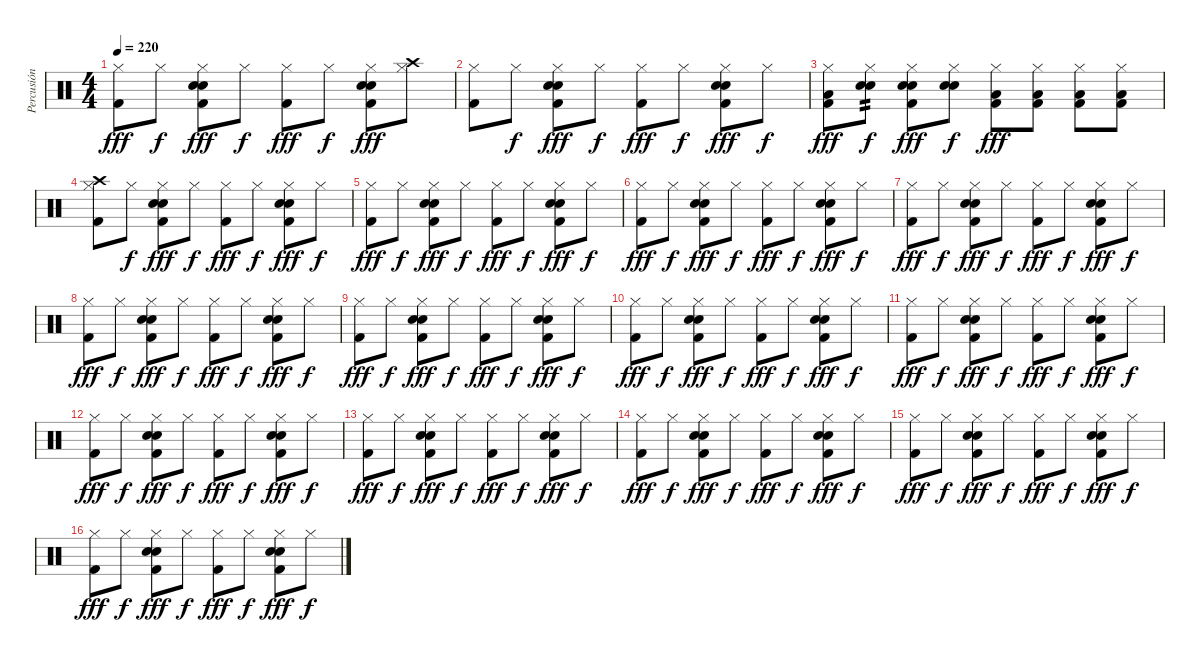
\track ("Percusión" "Percusión") {instrument percussion}
\staff {score}
\articulation defaults
\ts (4 4)
\tempo 220
\clef neutral
\ks c
("Hi-Hat (closed)" "Kick (hit) 2").8{dy fff} "Hi-Hat (closed)".8{dy f} ("Hi-Hat (closed)" "Electric Snare (hit)" "Snare (hit) 2" "Kick (hit) 2").8{dy fff} "Hi-Hat (closed)".8{dy f} ("Hi-Hat (closed)" "Kick (hit) 2").8{dy fff} "Hi-Hat (closed)".8{dy f} ("Hi-Hat (closed)" "Electric Snare (hit)" "Snare (hit) 2" "Kick (hit) 2").8{dy fff} ("Crash high (hit)" "Hi-Hat (closed)").8 |
("Hi-Hat (closed)" "Kick (hit) 2").8 "Hi-Hat (closed)".8{dy f} ("Hi-Hat (closed)" "Electric Snare (hit)" "Snare (hit) 2" "Kick (hit) 2").8{dy fff} "Hi-Hat (closed)".8{dy f} ("Hi-Hat (closed)" "Kick (hit) 2").8{dy fff} "Hi-Hat (closed)".8{dy f} ("Hi-Hat (closed)" "Electric Snare (hit)" "Snare (hit) 2" "Kick (hit) 2").8{dy fff} "Hi-Hat (closed)".8{dy f} |
("Hi-Hat (closed)" "Low Tom (hit)" "Kick (hit) 2").8{dy fff} ("Hi-Hat (closed)" "Snare (hit) 2" "Electric Snare (hit)").8{tp 2 dy f} ("Hi-Hat (closed)" "Snare (hit) 2" "Electric Snare (hit)" "Kick (hit) 2").8{dy fff} ("Hi-Hat (closed)" "Snare (hit) 2" "Electric Snare (hit)").8{dy f} ("Hi-Hat (closed)" "Low Tom (hit)" "Kick (hit) 2").8{dy fff} ("Hi-Hat (closed)" "Low Tom (hit)" "Kick (hit) 2").8 ("Hi-Hat (closed)" "Low Tom (hit)" "Kick (hit) 2").8 ("Hi-Hat (closed)" "Low Tom (hit)" "Kick (hit) 2").8 |
("Crash high (hit)" "Hi-Hat (closed)" "Kick (hit) 2").8 "Hi-Hat (closed)".8{dy f} ("Hi-Hat (closed)" "Electric Snare (hit)" "Snare (hit) 2" "Kick (hit) 2").8{dy fff} "Hi-Hat (closed)".8{dy f} ("Hi-Hat (closed)" "Kick (hit) 2").8{dy fff} "Hi-Hat (closed)".8{dy f} ("Hi-Hat (closed)" "Electric Snare (hit)" "Snare (hit) 2" "Kick (hit) 2").8{dy fff} "Hi-Hat (closed)".8{dy f} |
("Hi-Hat (closed)" "Kick (hit) 2").8{dy fff} "Hi-Hat (closed)".8{dy f} ("Hi-Hat (closed)" "Electric Snare (hit)" "Snare (hit) 2" "Kick (hit) 2").8{dy fff} "Hi-Hat (closed)".8{dy f} ("Hi-Hat (closed)" "Kick (hit) 2").8{dy fff} "Hi-Hat (closed)".8{dy f} ("Hi-Hat (closed)" "Electric Snare (hit)" "Snare (hit) 2" "Kick (hit) 2").8{dy fff} "Hi-Hat (closed)".8{dy f} |
("Hi-Hat (closed)" "Kick (hit) 2").8{dy fff} "Hi-Hat (closed)".8{dy f} ("Hi-Hat (closed)" "Electric Snare (hit)" "Snare (hit) 2" "Kick (hit) 2").8{dy fff} "Hi-Hat (closed)".8{dy f} ("Hi-Hat (closed)" "Kick (hit) 2").8{dy fff} "Hi-Hat (closed)".8{dy f} ("Hi-Hat (closed)" "Electric Snare (hit)" "Snare (hit) 2" "Kick (hit) 2").8{dy fff} "Hi-Hat (closed)".8{dy f} |
("Hi-Hat (closed)" "Kick (hit) 2").8{dy fff} "Hi-Hat (closed)".8{dy f} ("Hi-Hat (closed)" "Electric Snare (hit)" "Snare (hit) 2" "Kick (hit) 2").8{dy fff} "Hi-Hat (closed)".8{dy f} ("Hi-Hat (closed)" "Kick (hit) 2").8{dy fff} "Hi-Hat (closed)".8{dy f} ("Hi-Hat (closed)" "Electric Snare (hit)" "Snare (hit) 2" "Kick (hit) 2").8{dy fff} "Hi-Hat (closed)".8{dy f} |
("Hi-Hat (closed)" "Kick (hit) 2").8{dy fff} "Hi-Hat (closed)".8{dy f} ("Hi-Hat (closed)" "Electric Snare (hit)" "Snare (hit) 2" "Kick (hit) 2").8{dy fff} "Hi-Hat (closed)".8{dy f} ("Hi-Hat (closed)" "Kick (hit) 2").8{dy fff} "Hi-Hat (closed)".8{dy f} ("Hi-Hat (closed)" "Electric Snare (hit)" "Snare (hit) 2" "Kick (hit) 2").8{dy fff} "Hi-Hat (closed)".8{dy f} |
("Hi-Hat (closed)" "Kick (hit) 2").8{dy fff} "Hi-Hat (closed)".8{dy f} ("Hi-Hat (closed)" "Electric Snare (hit)" "Snare (hit) 2" "Kick (hit) 2").8{dy fff} "Hi-Hat (closed)".8{dy f} ("Hi-Hat (closed)" "Kick (hit) 2").8{dy fff} "Hi-Hat (closed)".8{dy f} ("Hi-Hat (closed)" "Electric Snare (hit)" "Snare (hit) 2" "Kick (hit) 2").8{dy fff} "Hi-Hat (closed)".8{dy f} |
("Hi-Hat (closed)" "Kick (hit) 2").8{dy fff} "Hi-Hat (closed)".8{dy f} ("Hi-Hat (closed)" "Electric Snare (hit)" "Snare (hit) 2" "Kick (hit) 2").8{dy fff} "Hi-Hat (closed)".8{dy f} ("Hi-Hat (closed)" "Kick (hit) 2").8{dy fff} "Hi-Hat (closed)".8{dy f} ("Hi-Hat (closed)" "Electric Snare (hit)" "Snare (hit) 2" "Kick (hit) 2").8{dy fff} "Hi-Hat (closed)".8{dy f} |
("Hi-Hat (closed)" "Kick (hit) 2").8{dy fff} "Hi-Hat (closed)".8{dy f} ("Hi-Hat (closed)" "Electric Snare (hit)" "Snare (hit) 2" "Kick (hit) 2").8{dy fff} "Hi-Hat (closed)".8{dy f} ("Hi-Hat (closed)" "Kick (hit) 2").8{dy fff} "Hi-Hat (closed)".8{dy f} ("Hi-Hat (closed)" "Electric Snare (hit)" "Snare (hit) 2" "Kick (hit) 2").8{dy fff} "Hi-Hat (closed)".8{dy f} |
("Hi-Hat (closed)" "Kick (hit) 2").8{dy fff} "Hi-Hat (closed)".8{dy f} ("Hi-Hat (closed)" "Electric Snare (hit)" "Snare (hit) 2" "Kick (hit) 2").8{dy fff} "Hi-Hat (closed)".8{dy f} ("Hi-Hat (closed)" "Kick (hit) 2").8{dy fff} "Hi-Hat (closed)".8{dy f} ("Hi-Hat (closed)" "Electric Snare (hit)" "Snare (hit) 2" "Kick (hit) 2").8{dy fff} "Hi-Hat (closed)".8{dy f} |
("Hi-Hat (closed)" "Kick (hit) 2").8{dy fff} "Hi-Hat (closed)".8{dy f} ("Hi-Hat (closed)" "Electric Snare (hit)" "Snare (hit) 2" "Kick (hit) 2").8{dy fff} "Hi-Hat (closed)".8{dy f} ("Hi-Hat (closed)" "Kick (hit) 2").8{dy fff} "Hi-Hat (closed)".8{dy f} ("Hi-Hat (closed)" "Electric Snare (hit)" "Snare (hit) 2" "Kick (hit) 2").8{dy fff} "Hi-Hat (closed)".8{dy f} |
("Hi-Hat (closed)" "Kick (hit) 2").8{dy fff} "Hi-Hat (closed)".8{dy f} ("Hi-Hat (closed)" "Electric Snare (hit)" "Snare (hit) 2" "Kick (hit) 2").8{dy fff} "Hi-Hat (closed)".8{dy f} ("Hi-Hat (closed)" "Kick (hit) 2").8{dy fff} "Hi-Hat (closed)".8{dy f} ("Hi-Hat (closed)" "Electric Snare (hit)" "Snare (hit) 2" "Kick (hit) 2").8{dy fff} "Hi-Hat (closed)".8{dy f} |
("Hi-Hat (closed)" "Kick (hit) 2").8{dy fff} "Hi-Hat (closed)".8{dy f} ("Hi-Hat (closed)" "Electric Snare (hit)" "Snare (hit) 2" "Kick (hit) 2").8{dy fff} "Hi-Hat (closed)".8{dy f} ("Hi-Hat (closed)" "Kick (hit) 2").8{dy fff} "Hi-Hat (closed)".8{dy f} ("Hi-Hat (closed)" "Electric Snare (hit)" "Snare (hit) 2" "Kick (hit) 2").8{dy fff} "Hi-Hat (closed)".8{dy f} |
("Hi-Hat (closed)" "Kick (hit) 2").8{dy fff} "Hi-Hat (closed)".8{dy f} ("Hi-Hat (closed)" "Electric Snare (hit)" "Snare (hit) 2" "Kick (hit) 2").8{dy fff} "Hi-Hat (closed)".8{dy f} ("Hi-Hat (closed)" "Kick (hit) 2").8{dy fff} "Hi-Hat (closed)".8{dy f} ("Hi-Hat (closed)" "Electric Snare (hit)" "Snare (hit) 2" "Kick (hit) 2").8{dy fff} "Hi-Hat (closed)".8{dy f}
